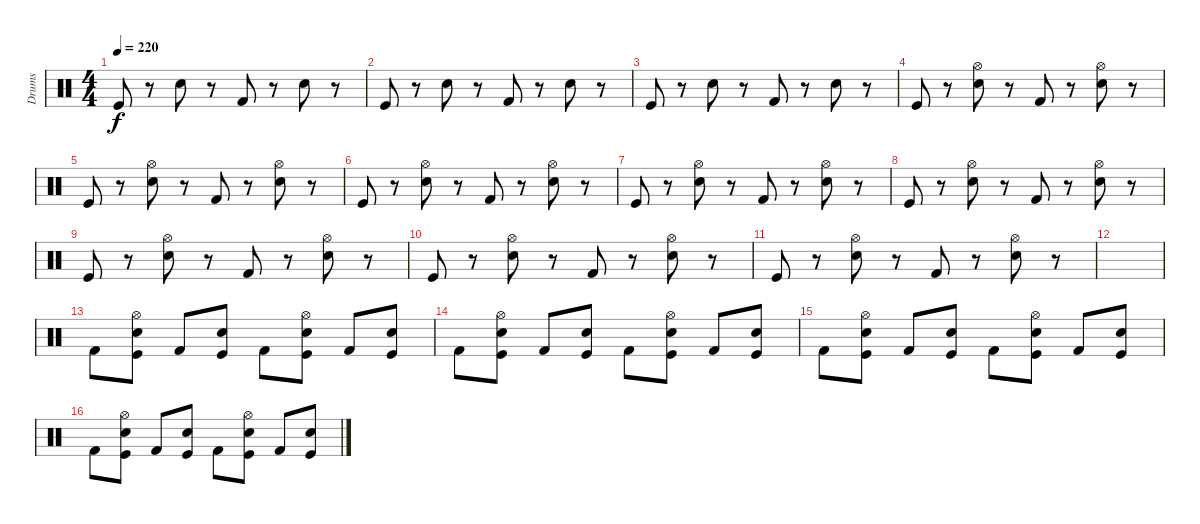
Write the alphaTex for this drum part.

\track ("Drums" "Drums") {instrument percussion}
\staff {score}
\articulation defaults
\ts (4 4)
\tempo 220
\clef neutral
\ks c "Kick (hit)".8{dy f}
r.8 "Electric Snare (hit)".8 r.8 "Kick (hit) 2".8 r.8 "Electric Snare (hit)".8 r.8 |
"Kick (hit)".8 r.8 "Electric Snare (hit)".8 r.8 "Kick (hit) 2".8 r.8 "Electric Snare (hit)".8 r.8 |
"Kick (hit)".8 r.8 "Electric Snare (hit)".8 r.8 "Kick (hit) 2".8 r.8 "Electric Snare (hit)".8 r.8 |
"Kick (hit)".8 r.8 ("Hi-Hat (open)" "Electric Snare (hit)").8 r.8 "Kick (hit) 2".8 r.8 ("Hi-Hat (open)" "Electric Snare (hit)").8 r.8 |
"Kick (hit)".8 r.8 ("Hi-Hat (open)" "Electric Snare (hit)").8 r.8 "Kick (hit) 2".8 r.8 ("Hi-Hat (open)" "Electric Snare (hit)").8 r.8 |
"Kick (hit)".8 r.8 ("Hi-Hat (open)" "Electric Snare (hit)").8 r.8 "Kick (hit) 2".8 r.8 ("Hi-Hat (open)" "Electric Snare (hit)").8 r.8 |
"Kick (hit)".8 r.8 ("Hi-Hat (open)" "Electric Snare (hit)").8 r.8 "Kick (hit) 2".8 r.8 ("Hi-Hat (open)" "Electric Snare (hit)").8 r.8 |
"Kick (hit)".8 r.8 ("Hi-Hat (open)" "Electric Snare (hit)").8 r.8 "Kick (hit) 2".8 r.8 ("Hi-Hat (open)" "Electric Snare (hit)").8 r.8 |
"Kick (hit)".8 r.8 ("Hi-Hat (open)" "Electric Snare (hit)").8 r.8 "Kick (hit) 2".8 r.8 ("Hi-Hat (open)" "Electric Snare (hit)").8 r.8 |
"Kick (hit)".8 r.8 ("Hi-Hat (open)" "Electric Snare (hit)").8 r.8 "Kick (hit) 2".8 r.8 ("Hi-Hat (open)" "Electric Snare (hit)").8 r.8 |
"Kick (hit)".8 r.8 ("Hi-Hat (open)" "Electric Snare (hit)").8 r.8 "Kick (hit) 2".8 r.8 ("Hi-Hat (open)" "Electric Snare (hit)").8 r.8 |
|
"Kick (hit) 2".8 ("Hi-Hat (open)" "Electric Snare (hit)" "Kick (hit)").8 "Kick (hit) 2".8 ("Electric Snare (hit)" "Kick (hit)").8 "Kick (hit) 2".8 ("Hi-Hat (open)" "Electric Snare (hit)" "Kick (hit)").8 "Kick (hit) 2".8 ("Electric Snare (hit)" "Kick (hit)").8 |
"Kick (hit) 2".8 ("Hi-Hat (open)" "Electric Snare (hit)" "Kick (hit)").8 "Kick (hit) 2".8 ("Electric Snare (hit)" "Kick (hit)").8 "Kick (hit) 2".8 ("Hi-Hat (open)" "Electric Snare (hit)" "Kick (hit)").8 "Kick (hit) 2".8 ("Electric Snare (hit)" "Kick (hit)").8 |
"Kick (hit) 2".8 ("Hi-Hat (open)" "Electric Snare (hit)" "Kick (hit)").8 "Kick (hit) 2".8 ("Electric Snare (hit)" "Kick (hit)").8 "Kick (hit) 2".8 ("Hi-Hat (open)" "Electric Snare (hit)" "Kick (hit)").8 "Kick (hit) 2".8 ("Electric Snare (hit)" "Kick (hit)").8 |
"Kick (hit) 2".8 ("Hi-Hat (open)" "Electric Snare (hit)" "Kick (hit)").8 "Kick (hit) 2".8 ("Electric Snare (hit)" "Kick (hit)").8 "Kick (hit) 2".8 ("Hi-Hat (open)" "Electric Snare (hit)" "Kick (hit)").8 "Kick (hit) 2".8 ("Electric Snare (hit)" "Kick (hit)").8
